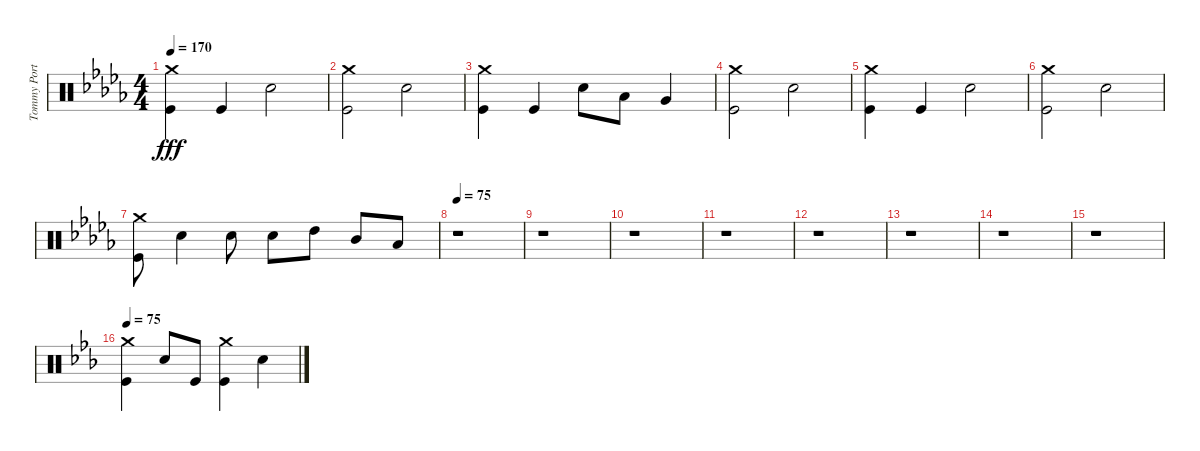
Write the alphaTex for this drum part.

\track ("Tommy Portimo (Percussion)" "Tommy Port") {instrument percussion}
\staff {score}
\articulation defaults
\ts (4 4)
\tempo 170
\clef neutral
\ks db
("Kick (hit)" "Crash medium (hit)").4{dy fff} "Kick (hit)".4 "Electric Snare (hit)".2 |
("Kick (hit)" "Crash medium (hit)").2 "Electric Snare (hit)".2 |
("Kick (hit)" "Crash medium (hit)").4 "Kick (hit)".4 "Electric Snare (hit)".8 "Low Tom (hit)".8 "Very Low Tom (hit)".4 |
("Kick (hit)" "Crash medium (hit)").2 "Electric Snare (hit)".2 |
("Kick (hit)" "Crash medium (hit)").4 "Kick (hit)".4 "Electric Snare (hit)".2 |
("Kick (hit)" "Crash medium (hit)").2 "Electric Snare (hit)".2 |
("Kick (hit)" "Crash medium (hit)").8 "Electric Snare (hit)".4 "Electric Snare (hit)".8 "Electric Snare (hit)".8 "High Tom (hit)".8 "Mid Tom (hit)".8 "Low Tom (hit)".8 |
\tempo 75
r.1 |
r.1 |
r.1 |
r.1 |
r.1 |
r.1 |
r.1 |
r.1 |
\tempo 75
\ks eb
("Kick (hit)" "Crash medium (hit)").4 "Electric Snare (hit)".8 "Kick (hit)".8 ("Kick (hit)" "Crash medium (hit)").4 "Electric Snare (hit)".4
